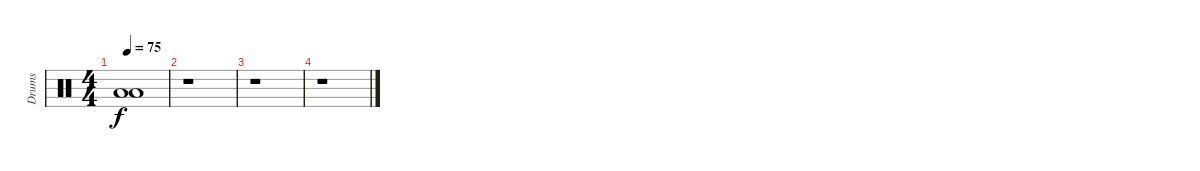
\track ("Drums" "Drums") {instrument percussion}
\staff {score}
\articulation defaults
\ts (4 4)
\tempo 75
\clef neutral
\ks c
("Low Floor Tom (hit)" "Low Floor Tom (hit)").1{dy f} |
r.1 |
r.1 |
r.1
